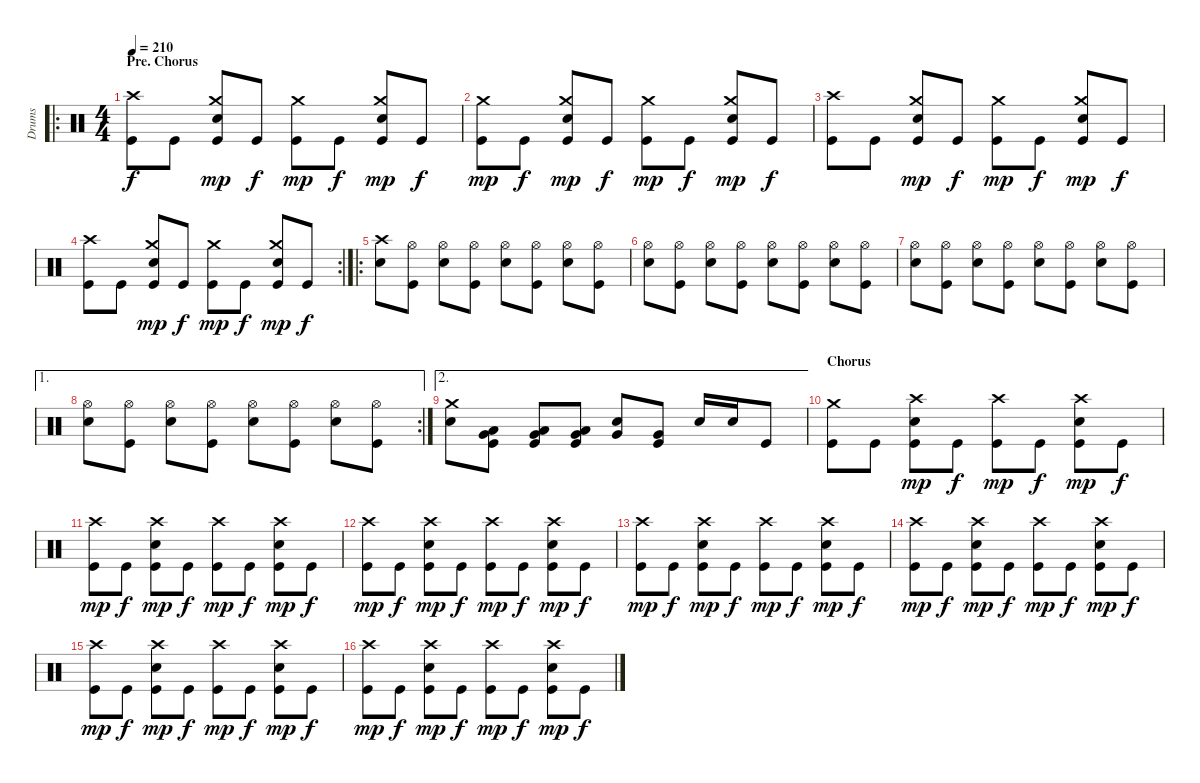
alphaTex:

\track ("Drums" "Drums") {instrument percussion}
\staff {score}
\articulation defaults
\ro
\ts (4 4)
\section ("" "Pre. Chorus")
\tempo 210
\clef neutral
\ks c
("Crash high (hit)" "Kick (hit)").8{dy f} "Kick (hit)".8 ("Crash medium (hit)" "Electric Snare (hit)" "Kick (hit)").8{dy mp} "Kick (hit)".8{dy f} ("Crash medium (hit)" "Kick (hit)").8{dy mp} "Kick (hit)".8{dy f} ("Crash medium (hit)" "Electric Snare (hit)" "Kick (hit)").8{dy mp} "Kick (hit)".8{dy f} |
("Crash medium (hit)" "Kick (hit)").8{dy mp} "Kick (hit)".8{dy f} ("Crash medium (hit)" "Electric Snare (hit)" "Kick (hit)").8{dy mp} "Kick (hit)".8{dy f} ("Crash medium (hit)" "Kick (hit)").8{dy mp} "Kick (hit)".8{dy f} ("Crash medium (hit)" "Electric Snare (hit)" "Kick (hit)").8{dy mp} "Kick (hit)".8{dy f} |
("Crash high (hit)" "Kick (hit)").8 "Kick (hit)".8 ("Crash medium (hit)" "Electric Snare (hit)" "Kick (hit)").8{dy mp} "Kick (hit)".8{dy f} ("Crash medium (hit)" "Kick (hit)").8{dy mp} "Kick (hit)".8{dy f} ("Crash medium (hit)" "Electric Snare (hit)" "Kick (hit)").8{dy mp} "Kick (hit)".8{dy f} |
\rc 2
("Crash high (hit)" "Kick (hit)").8 "Kick (hit)".8 ("Crash medium (hit)" "Electric Snare (hit)" "Kick (hit)").8{dy mp} "Kick (hit)".8{dy f} ("Crash medium (hit)" "Kick (hit)").8{dy mp} "Kick (hit)".8{dy f} ("Crash medium (hit)" "Electric Snare (hit)" "Kick (hit)").8{dy mp} "Kick (hit)".8{dy f} |
\ro
("Crash high (hit)" "Electric Snare (hit)").8 ("Hi-Hat (open)" "Kick (hit)").8 ("Hi-Hat (open)" "Electric Snare (hit)").8 ("Hi-Hat (open)" "Kick (hit)").8 ("Hi-Hat (open)" "Electric Snare (hit)").8 ("Hi-Hat (open)" "Kick (hit)").8 ("Hi-Hat (open)" "Electric Snare (hit)").8 ("Hi-Hat (open)" "Kick (hit)").8 |
("Hi-Hat (open)" "Electric Snare (hit)").8 ("Hi-Hat (open)" "Kick (hit)").8 ("Hi-Hat (open)" "Electric Snare (hit)").8 ("Hi-Hat (open)" "Kick (hit)").8 ("Hi-Hat (open)" "Electric Snare (hit)").8 ("Hi-Hat (open)" "Kick (hit)").8 ("Hi-Hat (open)" "Electric Snare (hit)").8 ("Hi-Hat (open)" "Kick (hit)").8 |
("Hi-Hat (open)" "Electric Snare (hit)").8 ("Hi-Hat (open)" "Kick (hit)").8 ("Hi-Hat (open)" "Electric Snare (hit)").8 ("Hi-Hat (open)" "Kick (hit)").8 ("Hi-Hat (open)" "Electric Snare (hit)").8 ("Hi-Hat (open)" "Kick (hit)").8 ("Hi-Hat (open)" "Electric Snare (hit)").8 ("Hi-Hat (open)" "Kick (hit)").8 |
\ae 1
\rc 2
("Hi-Hat (open)" "Electric Snare (hit)").8 ("Hi-Hat (open)" "Kick (hit)").8 ("Hi-Hat (open)" "Electric Snare (hit)").8 ("Hi-Hat (open)" "Kick (hit)").8 ("Hi-Hat (open)" "Electric Snare (hit)").8 ("Hi-Hat (open)" "Kick (hit)").8 ("Hi-Hat (open)" "Electric Snare (hit)").8 ("Hi-Hat (open)" "Kick (hit)").8 |
\ae 2
("Crash medium (hit)" "Electric Snare (hit)").8 ("Very Low Tom (hit)" "Low Tom (hit)" "Kick (hit)").8 ("Very Low Tom (hit)" "Low Tom (hit)" "Kick (hit)").8 ("Very Low Tom (hit)" "Low Tom (hit)" "Kick (hit)").8 ("Very Low Tom (hit)" "Electric Snare (hit)").8 ("Very Low Tom (hit)" "Kick (hit)").8 "Electric Snare (hit)".16 "Electric Snare (hit)".16 "Kick (hit)".8 |
\section ("" "Chorus")
("Crash medium (hit)" "Kick (hit)").8 "Kick (hit)".8 ("Crash high (hit)" "Electric Snare (hit)" "Kick (hit)").8{dy mp} "Kick (hit)".8{dy f} ("Crash high (hit)" "Kick (hit)").8{dy mp} "Kick (hit)".8{dy f} ("Crash high (hit)" "Electric Snare (hit)" "Kick (hit)").8{dy mp} "Kick (hit)".8{dy f} |
("Crash high (hit)" "Kick (hit)").8{dy mp} "Kick (hit)".8{dy f} ("Crash high (hit)" "Electric Snare (hit)" "Kick (hit)").8{dy mp} "Kick (hit)".8{dy f} ("Crash high (hit)" "Kick (hit)").8{dy mp} "Kick (hit)".8{dy f} ("Crash high (hit)" "Electric Snare (hit)" "Kick (hit)").8{dy mp} "Kick (hit)".8{dy f} |
("Crash high (hit)" "Kick (hit)").8{dy mp} "Kick (hit)".8{dy f} ("Crash high (hit)" "Electric Snare (hit)" "Kick (hit)").8{dy mp} "Kick (hit)".8{dy f} ("Crash high (hit)" "Kick (hit)").8{dy mp} "Kick (hit)".8{dy f} ("Crash high (hit)" "Electric Snare (hit)" "Kick (hit)").8{dy mp} "Kick (hit)".8{dy f} |
("Crash high (hit)" "Kick (hit)").8{dy mp} "Kick (hit)".8{dy f} ("Crash high (hit)" "Electric Snare (hit)" "Kick (hit)").8{dy mp} "Kick (hit)".8{dy f} ("Crash high (hit)" "Kick (hit)").8{dy mp} "Kick (hit)".8{dy f} ("Crash high (hit)" "Electric Snare (hit)" "Kick (hit)").8{dy mp} "Kick (hit)".8{dy f} |
("Crash high (hit)" "Kick (hit)").8{dy mp} "Kick (hit)".8{dy f} ("Crash high (hit)" "Electric Snare (hit)" "Kick (hit)").8{dy mp} "Kick (hit)".8{dy f} ("Crash high (hit)" "Kick (hit)").8{dy mp} "Kick (hit)".8{dy f} ("Crash high (hit)" "Electric Snare (hit)" "Kick (hit)").8{dy mp} "Kick (hit)".8{dy f} |
("Crash high (hit)" "Kick (hit)").8{dy mp} "Kick (hit)".8{dy f} ("Crash high (hit)" "Electric Snare (hit)" "Kick (hit)").8{dy mp} "Kick (hit)".8{dy f} ("Crash high (hit)" "Kick (hit)").8{dy mp} "Kick (hit)".8{dy f} ("Crash high (hit)" "Electric Snare (hit)" "Kick (hit)").8{dy mp} "Kick (hit)".8{dy f} |
("Crash high (hit)" "Kick (hit)").8{dy mp} "Kick (hit)".8{dy f} ("Crash high (hit)" "Electric Snare (hit)" "Kick (hit)").8{dy mp} "Kick (hit)".8{dy f} ("Crash high (hit)" "Kick (hit)").8{dy mp} "Kick (hit)".8{dy f} ("Crash high (hit)" "Electric Snare (hit)" "Kick (hit)").8{dy mp} "Kick (hit)".8{dy f}
